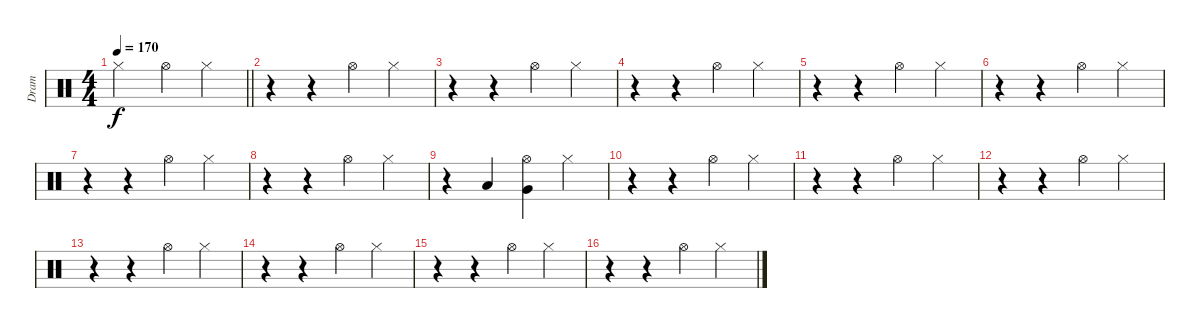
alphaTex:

\track ("Dram" "Dram") {instrument percussion}
\staff {score}
\articulation defaults
\ts (4 4)
\tempo 170
\clef neutral
\barLineRight lightlight
\ks c "Hi-Hat (closed)".2{dy f} "Hi-Hat (open)".4 "Hi-Hat (closed)".4
|
r.4 r.4 "Hi-Hat (open)".4 "Hi-Hat (closed)".4 |
r.4 r.4 "Hi-Hat (open)".4 "Hi-Hat (closed)".4 |
r.4 r.4 "Hi-Hat (open)".4 "Hi-Hat (closed)".4 |
r.4 r.4 "Hi-Hat (open)".4 "Hi-Hat (closed)".4 |
r.4 r.4 "Hi-Hat (open)".4 "Hi-Hat (closed)".4 |
r.4 r.4 "Hi-Hat (open)".4 "Hi-Hat (closed)".4 |
r.4 r.4 "Hi-Hat (open)".4 "Hi-Hat (closed)".4 |
r.4 "Low Tom (hit)".4 ("Hi-Hat (open)" "Very Low Tom (hit)").4 "Hi-Hat (closed)".4 |
r.4 r.4 "Hi-Hat (open)".4 "Hi-Hat (closed)".4 |
r.4 r.4 "Hi-Hat (open)".4 "Hi-Hat (closed)".4 |
r.4 r.4 "Hi-Hat (open)".4 "Hi-Hat (closed)".4 |
r.4 r.4 "Hi-Hat (open)".4 "Hi-Hat (closed)".4 |
r.4 r.4 "Hi-Hat (open)".4 "Hi-Hat (closed)".4 |
r.4 r.4 "Hi-Hat (open)".4 "Hi-Hat (closed)".4 |
r.4 r.4 "Hi-Hat (open)".4 "Hi-Hat (closed)".4
